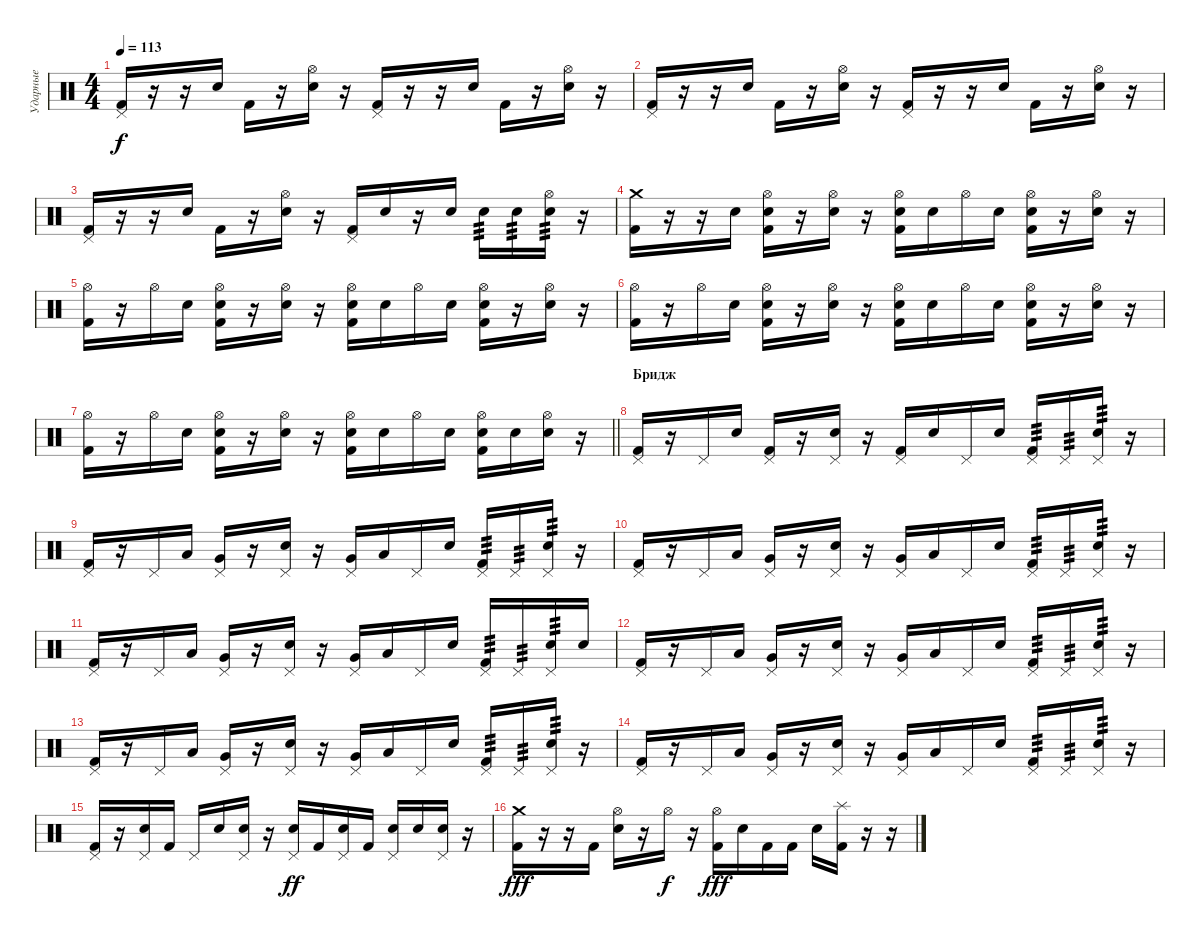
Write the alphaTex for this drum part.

\track ("Ударные" "Ударные") {instrument percussion}
\staff {score}
\articulation defaults
\ts (4 4)
\tempo 113
\clef neutral
\ks c
("Kick (hit) 2" "Pedal Hi-Hat (hit)").16{dy f} r.16 r.16 "Electric Snare (hit)".16 "Kick (hit) 2".16 r.16 ("Electric Snare (hit)" "Hi-Hat (open)").16 r.16 ("Kick (hit) 2" "Pedal Hi-Hat (hit)").16 r.16 r.16 "Electric Snare (hit)".16 "Kick (hit) 2".16 r.16 ("Electric Snare (hit)" "Hi-Hat (open)").16 r.16 |
("Kick (hit) 2" "Pedal Hi-Hat (hit)").16 r.16 r.16 "Electric Snare (hit)".16 "Kick (hit) 2".16 r.16 ("Electric Snare (hit)" "Hi-Hat (open)").16 r.16 ("Kick (hit) 2" "Pedal Hi-Hat (hit)").16 r.16 r.16 "Electric Snare (hit)".16 "Kick (hit) 2".16 r.16 ("Electric Snare (hit)" "Hi-Hat (open)").16 r.16 |
("Kick (hit) 2" "Pedal Hi-Hat (hit)").16 r.16 r.16 "Electric Snare (hit)".16 "Kick (hit) 2".16 r.16 ("Electric Snare (hit)" "Hi-Hat (open)").16 r.16 ("Kick (hit) 2" "Pedal Hi-Hat (hit)").16 "Electric Snare (hit)".16 r.16 "Electric Snare (hit)".16 "Electric Snare (hit)".16{tp 3} "Electric Snare (hit)".16{tp 3} ("Electric Snare (hit)" "Hi-Hat (open)").16{tp 3} r.16 |
("Kick (hit) 2" "Crash medium (hit)").16 r.16 r.16 "Electric Snare (hit)".16 ("Electric Snare (hit)" "Kick (hit) 2" "Hi-Hat (open)").16 r.16 ("Electric Snare (hit)" "Hi-Hat (open)").16 r.16 ("Electric Snare (hit)" "Kick (hit) 2" "Hi-Hat (open)").16 "Electric Snare (hit)".16 "Hi-Hat (open)".16 "Electric Snare (hit)".16 ("Electric Snare (hit)" "Kick (hit) 2" "Hi-Hat (open)").16 r.16 ("Electric Snare (hit)" "Hi-Hat (open)").16 r.16 |
("Kick (hit) 2" "Hi-Hat (open)").16 r.16 "Hi-Hat (open)".16 "Electric Snare (hit)".16 ("Electric Snare (hit)" "Kick (hit) 2" "Hi-Hat (open)").16 r.16 ("Electric Snare (hit)" "Hi-Hat (open)").16 r.16 ("Electric Snare (hit)" "Kick (hit) 2" "Hi-Hat (open)").16 "Electric Snare (hit)".16 "Hi-Hat (open)".16 "Electric Snare (hit)".16 ("Electric Snare (hit)" "Kick (hit) 2" "Hi-Hat (open)").16 r.16 ("Electric Snare (hit)" "Hi-Hat (open)").16 r.16 |
("Kick (hit) 2" "Hi-Hat (open)").16 r.16 "Hi-Hat (open)".16 "Electric Snare (hit)".16 ("Electric Snare (hit)" "Kick (hit) 2" "Hi-Hat (open)").16 r.16 ("Electric Snare (hit)" "Hi-Hat (open)").16 r.16 ("Electric Snare (hit)" "Kick (hit) 2" "Hi-Hat (open)").16 "Electric Snare (hit)".16 "Hi-Hat (open)".16 "Electric Snare (hit)".16 ("Electric Snare (hit)" "Kick (hit) 2" "Hi-Hat (open)").16 r.16 ("Electric Snare (hit)" "Hi-Hat (open)").16 r.16 |
\barLineRight lightlight
("Kick (hit) 2" "Hi-Hat (open)").16 r.16 "Hi-Hat (open)".16 "Electric Snare (hit)".16 ("Electric Snare (hit)" "Kick (hit) 2" "Hi-Hat (open)").16 r.16 ("Electric Snare (hit)" "Hi-Hat (open)").16 r.16 ("Electric Snare (hit)" "Kick (hit) 2" "Hi-Hat (open)").16 "Electric Snare (hit)".16 "Hi-Hat (open)".16 "Electric Snare (hit)".16 ("Electric Snare (hit)" "Kick (hit) 2" "Hi-Hat (open)").16 "Electric Snare (hit)".16 ("Electric Snare (hit)" "Hi-Hat (open)").16 r.16 |
\section ("" "Бридж")
("Kick (hit) 2" "Pedal Hi-Hat (hit)").16 r.16 "Pedal Hi-Hat (hit)".16 "Electric Snare (hit)".16 ("Kick (hit) 2" "Pedal Hi-Hat (hit)").16 r.16 ("Electric Snare (hit)" "Pedal Hi-Hat (hit)").16 r.16 ("Kick (hit) 2" "Pedal Hi-Hat (hit)").16 "Electric Snare (hit)".16 "Pedal Hi-Hat (hit)".16 "Electric Snare (hit)".16 ("Kick (hit) 2" "Pedal Hi-Hat (hit)").16{tp 3} "Pedal Hi-Hat (hit)".16{tp 3} ("Electric Snare (hit)" "Pedal Hi-Hat (hit)").16{tp 3} r.16 |
("Kick (hit) 2" "Pedal Hi-Hat (hit)").16 r.16 "Pedal Hi-Hat (hit)".16 "Low Tom (hit)".16 ("Very Low Tom (hit)" "Pedal Hi-Hat (hit)").16 r.16 ("Electric Snare (hit)" "Pedal Hi-Hat (hit)").16 r.16 ("Very Low Tom (hit)" "Pedal Hi-Hat (hit)").16 "Low Tom (hit)".16 "Pedal Hi-Hat (hit)".16 "Electric Snare (hit)".16 ("Kick (hit) 2" "Pedal Hi-Hat (hit)").16{tp 3} "Pedal Hi-Hat (hit)".16{tp 3} ("Electric Snare (hit)" "Pedal Hi-Hat (hit)").16{tp 3} r.16 |
("Kick (hit) 2" "Pedal Hi-Hat (hit)").16 r.16 "Pedal Hi-Hat (hit)".16 "Low Tom (hit)".16 ("Very Low Tom (hit)" "Pedal Hi-Hat (hit)").16 r.16 ("Electric Snare (hit)" "Pedal Hi-Hat (hit)").16 r.16 ("Very Low Tom (hit)" "Pedal Hi-Hat (hit)").16 "Low Tom (hit)".16 "Pedal Hi-Hat (hit)".16 "Electric Snare (hit)".16 ("Kick (hit) 2" "Pedal Hi-Hat (hit)").16{tp 3} "Pedal Hi-Hat (hit)".16{tp 3} ("Electric Snare (hit)" "Pedal Hi-Hat (hit)").16{tp 3} r.16 |
("Kick (hit) 2" "Pedal Hi-Hat (hit)").16 r.16 "Pedal Hi-Hat (hit)".16 "Low Tom (hit)".16 ("Very Low Tom (hit)" "Pedal Hi-Hat (hit)").16 r.16 ("Electric Snare (hit)" "Pedal Hi-Hat (hit)").16 r.16 ("Very Low Tom (hit)" "Pedal Hi-Hat (hit)").16 "Low Tom (hit)".16 "Pedal Hi-Hat (hit)".16 "Electric Snare (hit)".16 ("Kick (hit) 2" "Pedal Hi-Hat (hit)").16{tp 3} "Pedal Hi-Hat (hit)".16{tp 3} ("Electric Snare (hit)" "Pedal Hi-Hat (hit)").16{tp 3} "Electric Snare (hit)".16 |
("Kick (hit) 2" "Pedal Hi-Hat (hit)").16 r.16 "Pedal Hi-Hat (hit)".16 "Low Tom (hit)".16 ("Very Low Tom (hit)" "Pedal Hi-Hat (hit)").16 r.16 ("Electric Snare (hit)" "Pedal Hi-Hat (hit)").16 r.16 ("Very Low Tom (hit)" "Pedal Hi-Hat (hit)").16 "Low Tom (hit)".16 "Pedal Hi-Hat (hit)".16 "Electric Snare (hit)".16 ("Kick (hit) 2" "Pedal Hi-Hat (hit)").16{tp 3} "Pedal Hi-Hat (hit)".16{tp 3} ("Electric Snare (hit)" "Pedal Hi-Hat (hit)").16{tp 3} r.16 |
("Kick (hit) 2" "Pedal Hi-Hat (hit)").16 r.16 "Pedal Hi-Hat (hit)".16 "Low Tom (hit)".16 ("Very Low Tom (hit)" "Pedal Hi-Hat (hit)").16 r.16 ("Electric Snare (hit)" "Pedal Hi-Hat (hit)").16 r.16 ("Very Low Tom (hit)" "Pedal Hi-Hat (hit)").16 "Low Tom (hit)".16 "Pedal Hi-Hat (hit)".16 "Electric Snare (hit)".16 ("Kick (hit) 2" "Pedal Hi-Hat (hit)").16{tp 3} "Pedal Hi-Hat (hit)".16{tp 3} ("Electric Snare (hit)" "Pedal Hi-Hat (hit)").16{tp 3} r.16 |
("Kick (hit) 2" "Pedal Hi-Hat (hit)").16 r.16 "Pedal Hi-Hat (hit)".16 "Low Tom (hit)".16 ("Very Low Tom (hit)" "Pedal Hi-Hat (hit)").16 r.16 ("Electric Snare (hit)" "Pedal Hi-Hat (hit)").16 r.16 ("Very Low Tom (hit)" "Pedal Hi-Hat (hit)").16 "Low Tom (hit)".16 "Pedal Hi-Hat (hit)".16 "Electric Snare (hit)".16 ("Kick (hit) 2" "Pedal Hi-Hat (hit)").16{tp 3} "Pedal Hi-Hat (hit)".16{tp 3} ("Electric Snare (hit)" "Pedal Hi-Hat (hit)").16{tp 3} r.16 |
("Kick (hit) 2" "Pedal Hi-Hat (hit)").16 r.16 ("Electric Snare (hit)" "Pedal Hi-Hat (hit)").16 "Kick (hit) 2".16 "Pedal Hi-Hat (hit)".16 "Electric Snare (hit)".16 ("Electric Snare (hit)" "Pedal Hi-Hat (hit)").16 r.16 ("Electric Snare (hit)" "Pedal Hi-Hat (hit)").16{dy ff} "Kick (hit) 2".16 ("Electric Snare (hit)" "Pedal Hi-Hat (hit)").16 "Kick (hit) 2".16 ("Electric Snare (hit)" "Pedal Hi-Hat (hit)").16 "Electric Snare (hit)".16 ("Electric Snare (hit)" "Pedal Hi-Hat (hit)").16 r.16 |
("Kick (hit) 2" "Crash medium (hit)").16{dy fff} r.16 r.16 "Kick (hit) 2".16 ("Electric Snare (hit)" "Hi-Hat (open)").16 r.16 "Hi-Hat (open)".16{dy f} r.16 ("Kick (hit) 2" "Hi-Hat (open)").16{dy fff} "Electric Snare (hit)".16 "Kick (hit) 2".16 "Kick (hit) 2".16 "Electric Snare (hit)".16 ("Kick (hit) 2" "Splash (hit)").16 r.16 r.16
